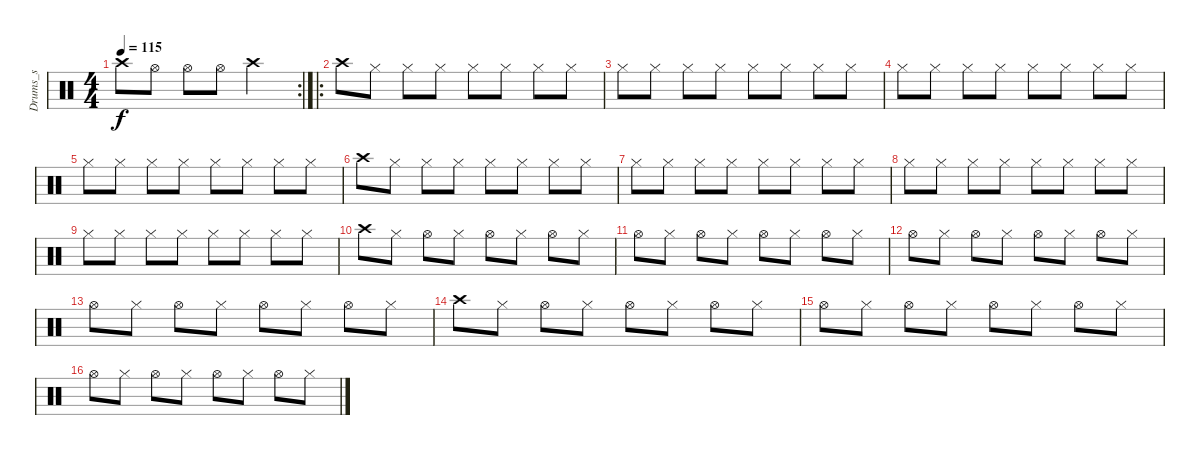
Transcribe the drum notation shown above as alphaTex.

\track ("Drums_s" "Drums_s") {instrument percussion}
\staff {score}
\articulation defaults
\rc 2
\ts (4 4)
\tempo 115
\clef neutral
\ks c "Crash high (hit)".8{dy f} "Hi-Hat (open)".8 "Hi-Hat (open)".8 "Hi-Hat (open)".8 "Crash high (hit)".2
|
\ro "Crash high (hit)".8 "Hi-Hat (closed)".8 "Hi-Hat (closed)".8 "Hi-Hat (closed)".8 "Hi-Hat (closed)".8 "Hi-Hat (closed)".8 "Hi-Hat (closed)".8 "Hi-Hat (closed)".8
|
"Hi-Hat (closed)".8 "Hi-Hat (closed)".8 "Hi-Hat (closed)".8 "Hi-Hat (closed)".8 "Hi-Hat (closed)".8 "Hi-Hat (closed)".8 "Hi-Hat (closed)".8 "Hi-Hat (closed)".8 |
"Hi-Hat (closed)".8 "Hi-Hat (closed)".8 "Hi-Hat (closed)".8 "Hi-Hat (closed)".8 "Hi-Hat (closed)".8 "Hi-Hat (closed)".8 "Hi-Hat (closed)".8 "Hi-Hat (closed)".8 |
"Hi-Hat (closed)".8 "Hi-Hat (closed)".8 "Hi-Hat (closed)".8 "Hi-Hat (closed)".8 "Hi-Hat (closed)".8 "Hi-Hat (closed)".8 "Hi-Hat (closed)".8 "Hi-Hat (closed)".8 |
"Crash high (hit)".8 "Hi-Hat (closed)".8 "Hi-Hat (closed)".8 "Hi-Hat (closed)".8 "Hi-Hat (closed)".8 "Hi-Hat (closed)".8 "Hi-Hat (closed)".8 "Hi-Hat (closed)".8 |
"Hi-Hat (closed)".8 "Hi-Hat (closed)".8 "Hi-Hat (closed)".8 "Hi-Hat (closed)".8 "Hi-Hat (closed)".8 "Hi-Hat (closed)".8 "Hi-Hat (closed)".8 "Hi-Hat (closed)".8 |
"Hi-Hat (closed)".8 "Hi-Hat (closed)".8 "Hi-Hat (closed)".8 "Hi-Hat (closed)".8 "Hi-Hat (closed)".8 "Hi-Hat (closed)".8 "Hi-Hat (closed)".8 "Hi-Hat (closed)".8 |
"Hi-Hat (closed)".8 "Hi-Hat (closed)".8 "Hi-Hat (closed)".8 "Hi-Hat (closed)".8 "Hi-Hat (closed)".8 "Hi-Hat (closed)".8 "Hi-Hat (closed)".8 "Hi-Hat (closed)".8 |
"Crash high (hit)".8 "Hi-Hat (closed)".8 "Hi-Hat (open)".8 "Hi-Hat (closed)".8 "Hi-Hat (open)".8 "Hi-Hat (closed)".8 "Hi-Hat (open)".8 "Hi-Hat (closed)".8 |
"Hi-Hat (open)".8 "Hi-Hat (closed)".8 "Hi-Hat (open)".8 "Hi-Hat (closed)".8 "Hi-Hat (open)".8 "Hi-Hat (closed)".8 "Hi-Hat (open)".8 "Hi-Hat (closed)".8 |
"Hi-Hat (open)".8 "Hi-Hat (closed)".8 "Hi-Hat (open)".8 "Hi-Hat (closed)".8 "Hi-Hat (open)".8 "Hi-Hat (closed)".8 "Hi-Hat (open)".8 "Hi-Hat (closed)".8 |
"Hi-Hat (open)".8 "Hi-Hat (closed)".8 "Hi-Hat (open)".8 "Hi-Hat (closed)".8 "Hi-Hat (open)".8 "Hi-Hat (closed)".8 "Hi-Hat (open)".8 "Hi-Hat (closed)".8 |
"Crash high (hit)".8 "Hi-Hat (closed)".8 "Hi-Hat (open)".8 "Hi-Hat (closed)".8 "Hi-Hat (open)".8 "Hi-Hat (closed)".8 "Hi-Hat (open)".8 "Hi-Hat (closed)".8 |
"Hi-Hat (open)".8 "Hi-Hat (closed)".8 "Hi-Hat (open)".8 "Hi-Hat (closed)".8 "Hi-Hat (open)".8 "Hi-Hat (closed)".8 "Hi-Hat (open)".8 "Hi-Hat (closed)".8 |
"Hi-Hat (open)".8 "Hi-Hat (closed)".8 "Hi-Hat (open)".8 "Hi-Hat (closed)".8 "Hi-Hat (open)".8 "Hi-Hat (closed)".8 "Hi-Hat (open)".8 "Hi-Hat (closed)".8
